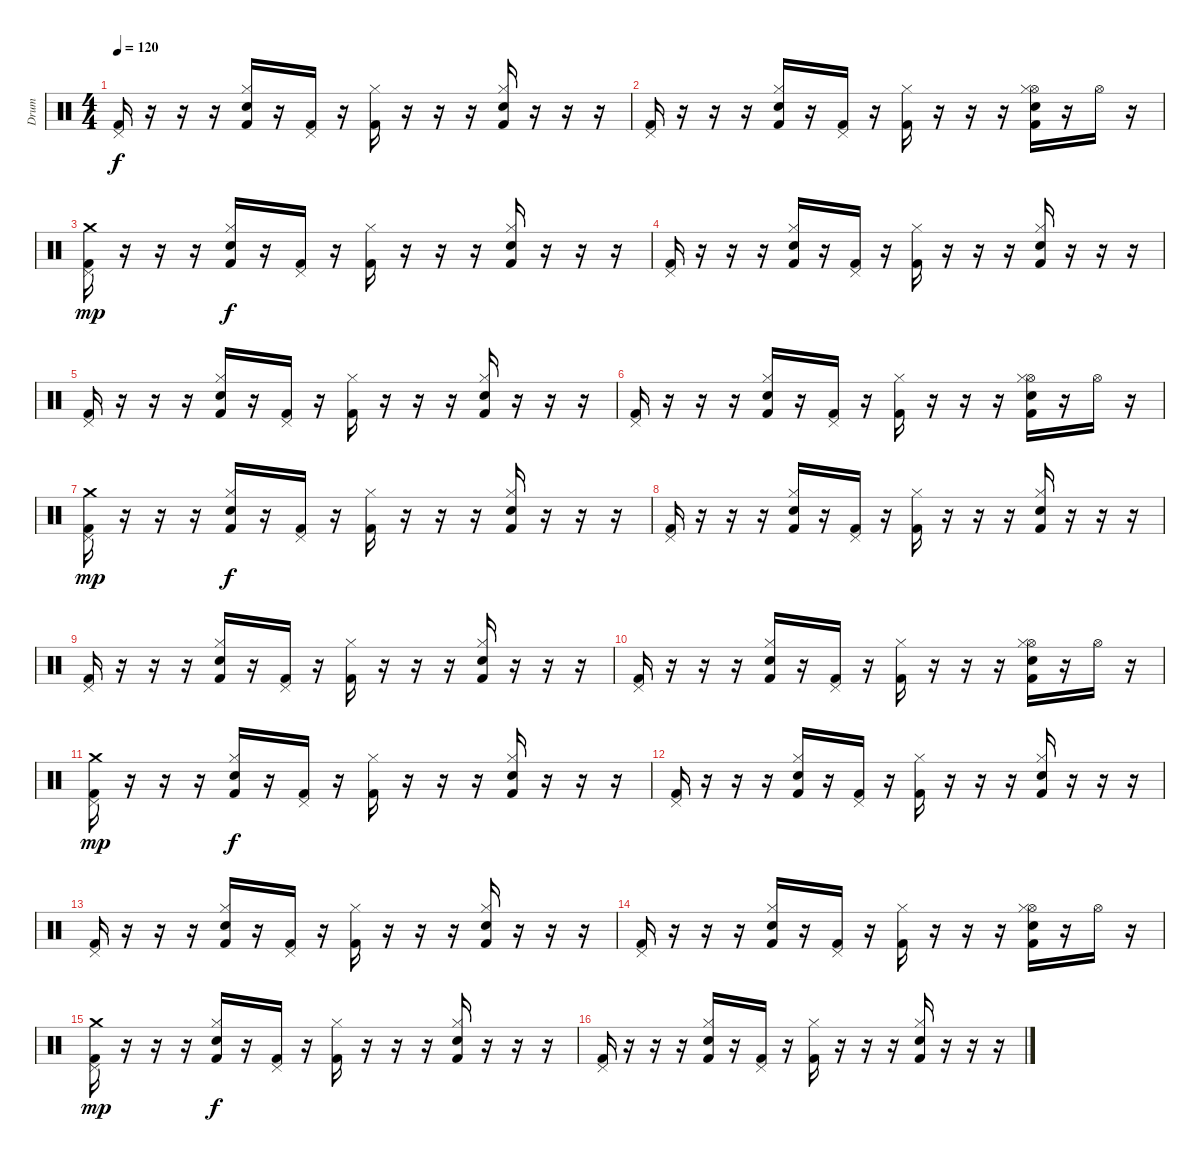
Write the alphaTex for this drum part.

\track ("Drum" "Drum") {instrument percussion}
\staff {score}
\articulation defaults
\ts (4 4)
\tempo 120
\clef neutral
\ks c
("Pedal Hi-Hat (hit)" "Kick (hit) 2").16{dy f} r.16 r.16 r.16 ("Hi-Hat (closed)" "Snare (hit) 2" "Kick (hit) 2").16 r.16 ("Pedal Hi-Hat (hit)" "Kick (hit) 2").16 r.16 ("Hi-Hat (closed)" "Kick (hit) 2").16 r.16 r.16 r.16 ("Hi-Hat (closed)" "Snare (hit) 2" "Kick (hit) 2").16 r.16 r.16 r.16 |
("Pedal Hi-Hat (hit)" "Kick (hit) 2").16 r.16 r.16 r.16 ("Hi-Hat (closed)" "Snare (hit) 2" "Kick (hit) 2").16 r.16 ("Pedal Hi-Hat (hit)" "Kick (hit) 2").16 r.16 ("Hi-Hat (closed)" "Kick (hit) 2").16 r.16 r.16 r.16 ("Hi-Hat (open)" "Hi-Hat (closed)" "Snare (hit) 2" "Kick (hit) 2").16 r.16 "Hi-Hat (open)".16 r.16 |
("Crash medium (hit)" "Pedal Hi-Hat (hit)" "Kick (hit) 2").16{dy mp} r.16 r.16 r.16 ("Hi-Hat (closed)" "Snare (hit) 2" "Kick (hit) 2").16{dy f} r.16 ("Pedal Hi-Hat (hit)" "Kick (hit) 2").16 r.16 ("Hi-Hat (closed)" "Kick (hit) 2").16 r.16 r.16 r.16 ("Hi-Hat (closed)" "Snare (hit) 2" "Kick (hit) 2").16 r.16 r.16 r.16 |
("Pedal Hi-Hat (hit)" "Kick (hit) 2").16 r.16 r.16 r.16 ("Hi-Hat (closed)" "Snare (hit) 2" "Kick (hit) 2").16 r.16 ("Pedal Hi-Hat (hit)" "Kick (hit) 2").16 r.16 ("Hi-Hat (closed)" "Kick (hit) 2").16 r.16 r.16 r.16 ("Hi-Hat (closed)" "Snare (hit) 2" "Kick (hit) 2").16 r.16 r.16 r.16 |
("Pedal Hi-Hat (hit)" "Kick (hit) 2").16 r.16 r.16 r.16 ("Hi-Hat (closed)" "Snare (hit) 2" "Kick (hit) 2").16 r.16 ("Pedal Hi-Hat (hit)" "Kick (hit) 2").16 r.16 ("Hi-Hat (closed)" "Kick (hit) 2").16 r.16 r.16 r.16 ("Hi-Hat (closed)" "Snare (hit) 2" "Kick (hit) 2").16 r.16 r.16 r.16 |
("Pedal Hi-Hat (hit)" "Kick (hit) 2").16 r.16 r.16 r.16 ("Hi-Hat (closed)" "Snare (hit) 2" "Kick (hit) 2").16 r.16 ("Pedal Hi-Hat (hit)" "Kick (hit) 2").16 r.16 ("Hi-Hat (closed)" "Kick (hit) 2").16 r.16 r.16 r.16 ("Hi-Hat (open)" "Hi-Hat (closed)" "Snare (hit) 2" "Kick (hit) 2").16 r.16 "Hi-Hat (open)".16 r.16 |
("Crash medium (hit)" "Pedal Hi-Hat (hit)" "Kick (hit) 2").16{dy mp} r.16 r.16 r.16 ("Hi-Hat (closed)" "Snare (hit) 2" "Kick (hit) 2").16{dy f} r.16 ("Pedal Hi-Hat (hit)" "Kick (hit) 2").16 r.16 ("Hi-Hat (closed)" "Kick (hit) 2").16 r.16 r.16 r.16 ("Hi-Hat (closed)" "Snare (hit) 2" "Kick (hit) 2").16 r.16 r.16 r.16 |
("Pedal Hi-Hat (hit)" "Kick (hit) 2").16 r.16 r.16 r.16 ("Hi-Hat (closed)" "Snare (hit) 2" "Kick (hit) 2").16 r.16 ("Pedal Hi-Hat (hit)" "Kick (hit) 2").16 r.16 ("Hi-Hat (closed)" "Kick (hit) 2").16 r.16 r.16 r.16 ("Hi-Hat (closed)" "Snare (hit) 2" "Kick (hit) 2").16 r.16 r.16 r.16 |
("Pedal Hi-Hat (hit)" "Kick (hit) 2").16 r.16 r.16 r.16 ("Hi-Hat (closed)" "Snare (hit) 2" "Kick (hit) 2").16 r.16 ("Pedal Hi-Hat (hit)" "Kick (hit) 2").16 r.16 ("Hi-Hat (closed)" "Kick (hit) 2").16 r.16 r.16 r.16 ("Hi-Hat (closed)" "Snare (hit) 2" "Kick (hit) 2").16 r.16 r.16 r.16 |
("Pedal Hi-Hat (hit)" "Kick (hit) 2").16 r.16 r.16 r.16 ("Hi-Hat (closed)" "Snare (hit) 2" "Kick (hit) 2").16 r.16 ("Pedal Hi-Hat (hit)" "Kick (hit) 2").16 r.16 ("Hi-Hat (closed)" "Kick (hit) 2").16 r.16 r.16 r.16 ("Hi-Hat (open)" "Hi-Hat (closed)" "Snare (hit) 2" "Kick (hit) 2").16 r.16 "Hi-Hat (open)".16 r.16 |
("Crash medium (hit)" "Pedal Hi-Hat (hit)" "Kick (hit) 2").16{dy mp} r.16 r.16 r.16 ("Hi-Hat (closed)" "Snare (hit) 2" "Kick (hit) 2").16{dy f} r.16 ("Pedal Hi-Hat (hit)" "Kick (hit) 2").16 r.16 ("Hi-Hat (closed)" "Kick (hit) 2").16 r.16 r.16 r.16 ("Hi-Hat (closed)" "Snare (hit) 2" "Kick (hit) 2").16 r.16 r.16 r.16 |
("Pedal Hi-Hat (hit)" "Kick (hit) 2").16 r.16 r.16 r.16 ("Hi-Hat (closed)" "Snare (hit) 2" "Kick (hit) 2").16 r.16 ("Pedal Hi-Hat (hit)" "Kick (hit) 2").16 r.16 ("Hi-Hat (closed)" "Kick (hit) 2").16 r.16 r.16 r.16 ("Hi-Hat (closed)" "Snare (hit) 2" "Kick (hit) 2").16 r.16 r.16 r.16 |
("Pedal Hi-Hat (hit)" "Kick (hit) 2").16 r.16 r.16 r.16 ("Hi-Hat (closed)" "Snare (hit) 2" "Kick (hit) 2").16 r.16 ("Pedal Hi-Hat (hit)" "Kick (hit) 2").16 r.16 ("Hi-Hat (closed)" "Kick (hit) 2").16 r.16 r.16 r.16 ("Hi-Hat (closed)" "Snare (hit) 2" "Kick (hit) 2").16 r.16 r.16 r.16 |
("Pedal Hi-Hat (hit)" "Kick (hit) 2").16 r.16 r.16 r.16 ("Hi-Hat (closed)" "Snare (hit) 2" "Kick (hit) 2").16 r.16 ("Pedal Hi-Hat (hit)" "Kick (hit) 2").16 r.16 ("Hi-Hat (closed)" "Kick (hit) 2").16 r.16 r.16 r.16 ("Hi-Hat (open)" "Hi-Hat (closed)" "Snare (hit) 2" "Kick (hit) 2").16 r.16 "Hi-Hat (open)".16 r.16 |
("Crash medium (hit)" "Pedal Hi-Hat (hit)" "Kick (hit) 2").16{dy mp} r.16 r.16 r.16 ("Hi-Hat (closed)" "Snare (hit) 2" "Kick (hit) 2").16{dy f} r.16 ("Pedal Hi-Hat (hit)" "Kick (hit) 2").16 r.16 ("Hi-Hat (closed)" "Kick (hit) 2").16 r.16 r.16 r.16 ("Hi-Hat (closed)" "Snare (hit) 2" "Kick (hit) 2").16 r.16 r.16 r.16 |
("Pedal Hi-Hat (hit)" "Kick (hit) 2").16 r.16 r.16 r.16 ("Hi-Hat (closed)" "Snare (hit) 2" "Kick (hit) 2").16 r.16 ("Pedal Hi-Hat (hit)" "Kick (hit) 2").16 r.16 ("Hi-Hat (closed)" "Kick (hit) 2").16 r.16 r.16 r.16 ("Hi-Hat (closed)" "Snare (hit) 2" "Kick (hit) 2").16 r.16 r.16 r.16
